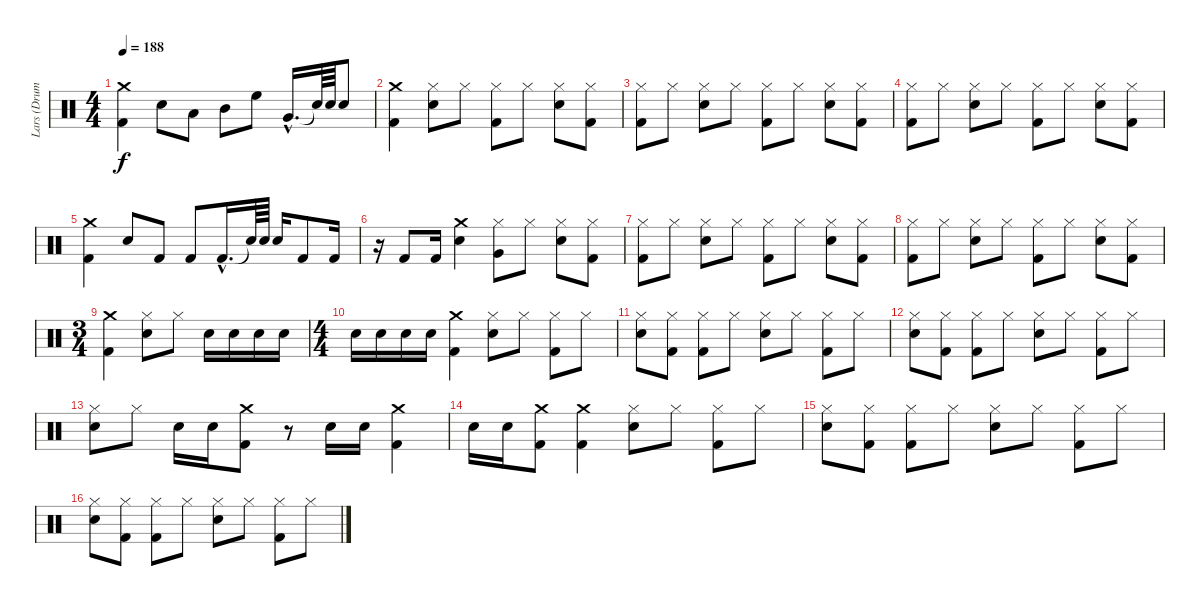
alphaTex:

\track ("Lars (Drums)" "Lars (Drum") {instrument percussion}
\staff {score}
\articulation defaults
\ts (4 4)
\tempo 188
\clef neutral
\ks c
("Kick (hit) 2" "Crash medium (hit)").4{dy f} "Snare (hit) 2".8 "Low Tom (hit)".8 "Mid Tom (hit)".8 "High Floor Tom (hit)".8 "Very Low Tom (hit)"{hac}.16{d} "Snare (hit)"{t}.64 "Snare (hit) 2".64 "Snare (hit) 2".8 |
("Kick (hit) 2" "Crash medium (hit)").4 ("Snare (hit) 2" "Hi-Hat (closed)").8 "Hi-Hat (closed)".8 ("Hi-Hat (closed)" "Kick (hit) 2").8 "Hi-Hat (closed)".8 ("Snare (hit) 2" "Hi-Hat (closed)").8 ("Kick (hit) 2" "Hi-Hat (closed)").8 |
("Hi-Hat (closed)" "Kick (hit) 2").8 "Hi-Hat (closed)".8 ("Snare (hit) 2" "Hi-Hat (closed)").8 "Hi-Hat (closed)".8 ("Hi-Hat (closed)" "Kick (hit) 2").8 "Hi-Hat (closed)".8 ("Snare (hit) 2" "Hi-Hat (closed)").8 ("Kick (hit) 2" "Hi-Hat (closed)").8 |
("Hi-Hat (closed)" "Kick (hit) 2").8 "Hi-Hat (closed)".8 ("Snare (hit) 2" "Hi-Hat (closed)").8 "Hi-Hat (closed)".8 ("Hi-Hat (closed)" "Kick (hit) 2").8 "Hi-Hat (closed)".8 ("Snare (hit) 2" "Hi-Hat (closed)").8 ("Kick (hit) 2" "Hi-Hat (closed)").8 |
("Kick (hit) 2" "Crash medium (hit)").4 "Snare (hit) 2".8 "Kick (hit) 2".8 "Kick (hit) 2".8 "Kick (hit) 2"{hac}.16{d} "Snare (hit)"{t}.64 "Snare (hit) 2".64 "Snare (hit) 2".16 "Kick (hit) 2".8 "Kick (hit) 2".16 |
r.16 "Kick (hit) 2".8 "Kick (hit) 2".16 ("Snare (hit) 2" "Crash medium (hit)").4 ("Very Low Tom (hit)" "Hi-Hat (closed)").8 "Hi-Hat (closed)".8 ("Snare (hit) 2" "Hi-Hat (closed)").8 ("Kick (hit) 2" "Hi-Hat (closed)").8 |
("Hi-Hat (closed)" "Kick (hit) 2").8 "Hi-Hat (closed)".8 ("Snare (hit) 2" "Hi-Hat (closed)").8 "Hi-Hat (closed)".8 ("Hi-Hat (closed)" "Kick (hit) 2").8 "Hi-Hat (closed)".8 ("Snare (hit) 2" "Hi-Hat (closed)").8 ("Kick (hit) 2" "Hi-Hat (closed)").8 |
("Hi-Hat (closed)" "Kick (hit) 2").8 "Hi-Hat (closed)".8 ("Snare (hit) 2" "Hi-Hat (closed)").8 "Hi-Hat (closed)".8 ("Hi-Hat (closed)" "Kick (hit) 2").8 "Hi-Hat (closed)".8 ("Snare (hit) 2" "Hi-Hat (closed)").8 ("Kick (hit) 2" "Hi-Hat (closed)").8 |
\ts (3 4)
("Kick (hit) 2" "Crash medium (hit)").4 ("Snare (hit) 2" "Hi-Hat (closed)").8 "Hi-Hat (closed)".8 "Snare (hit) 2".16 "Snare (hit) 2".16 "Snare (hit) 2".16 "Snare (hit) 2".16 |
\ts (4 4)
"Snare (hit) 2".16 "Snare (hit) 2".16 "Snare (hit) 2".16 "Snare (hit) 2".16 ("Kick (hit) 2" "Crash medium (hit)").4 ("Snare (hit) 2" "Hi-Hat (closed)").8 "Hi-Hat (closed)".8 ("Kick (hit) 2" "Hi-Hat (closed)").8 "Hi-Hat (closed)".8 |
("Hi-Hat (closed)" "Snare (hit) 2").8 ("Hi-Hat (closed)" "Kick (hit) 2").8 ("Hi-Hat (closed)" "Kick (hit) 2").8 "Hi-Hat (closed)".8 ("Snare (hit) 2" "Hi-Hat (closed)").8 "Hi-Hat (closed)".8 ("Hi-Hat (closed)" "Kick (hit) 2").8 "Hi-Hat (closed)".8 |
("Hi-Hat (closed)" "Snare (hit) 2").8 ("Hi-Hat (closed)" "Kick (hit) 2").8 ("Hi-Hat (closed)" "Kick (hit) 2").8 "Hi-Hat (closed)".8 ("Snare (hit) 2" "Hi-Hat (closed)").8 "Hi-Hat (closed)".8 ("Hi-Hat (closed)" "Kick (hit) 2").8 "Hi-Hat (closed)".8 |
("Hi-Hat (closed)" "Snare (hit) 2").8 "Hi-Hat (closed)".8 "Snare (hit) 2".16 "Snare (hit) 2".16 ("Kick (hit) 2" "Crash medium (hit)").8 r.8 "Snare (hit) 2".16 "Snare (hit) 2".16 ("Kick (hit) 2" "Crash medium (hit)").4 |
"Snare (hit) 2".16 "Snare (hit) 2".16 ("Kick (hit) 2" "Crash medium (hit)").8 ("Kick (hit) 2" "Crash medium (hit)").4 ("Hi-Hat (closed)" "Snare (hit) 2").8 "Hi-Hat (closed)".8 ("Hi-Hat (closed)" "Kick (hit) 2").8 "Hi-Hat (closed)".8 |
("Hi-Hat (closed)" "Snare (hit) 2").8 ("Hi-Hat (closed)" "Kick (hit) 2").8 ("Hi-Hat (closed)" "Kick (hit) 2").8 "Hi-Hat (closed)".8 ("Snare (hit) 2" "Hi-Hat (closed)").8 "Hi-Hat (closed)".8 ("Hi-Hat (closed)" "Kick (hit) 2").8 "Hi-Hat (closed)".8 |
("Hi-Hat (closed)" "Snare (hit) 2").8 ("Hi-Hat (closed)" "Kick (hit) 2").8 ("Hi-Hat (closed)" "Kick (hit) 2").8 "Hi-Hat (closed)".8 ("Snare (hit) 2" "Hi-Hat (closed)").8 "Hi-Hat (closed)".8 ("Hi-Hat (closed)" "Kick (hit) 2").8 "Hi-Hat (closed)".8
